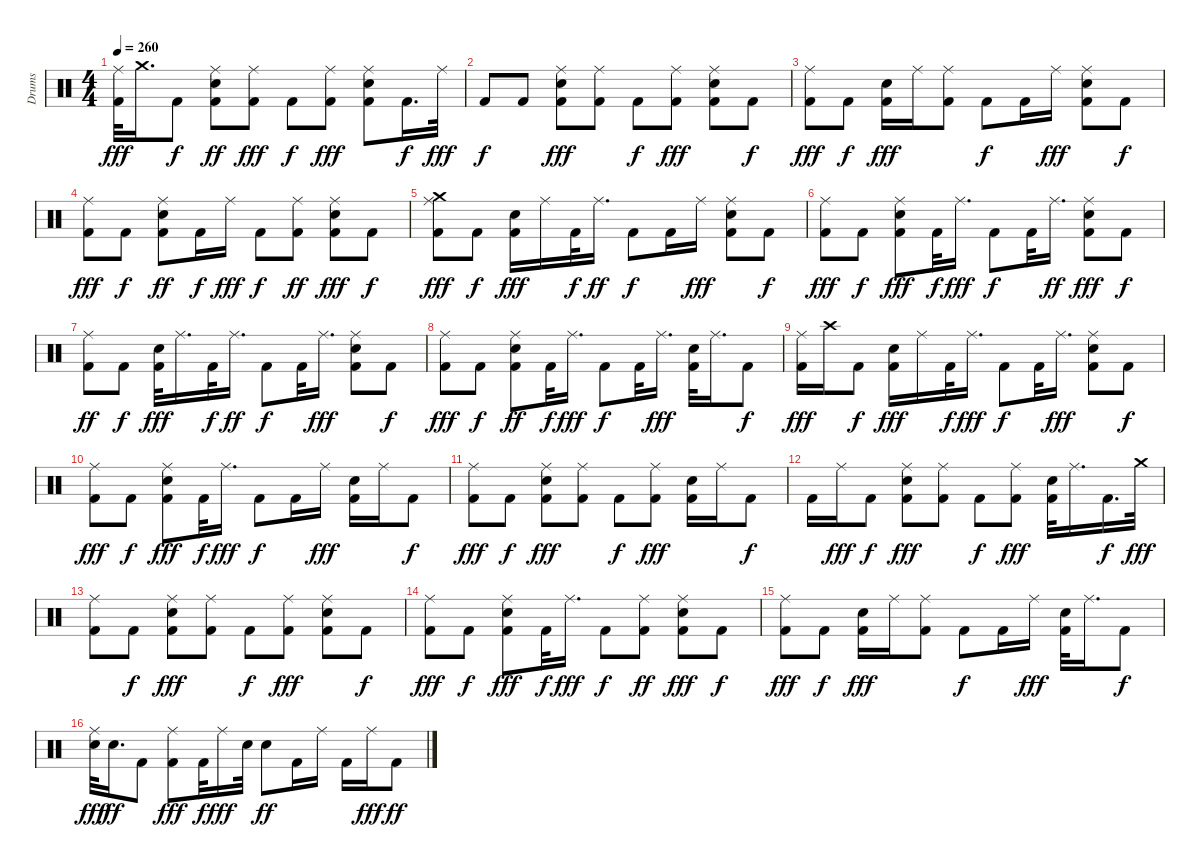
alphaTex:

\track ("Drums" "Drums") {instrument percussion}
\staff {score}
\articulation defaults
\ts (4 4)
\tempo 260
\clef neutral
\ks c
("Ride (middle)" "Kick (hit) 2").32{dy fff} "Crash medium (hit)".16{d} "Kick (hit) 2".8{dy f} ("Snare (hit) 2" "Kick (hit) 2" "Ride (middle)").8{dy ff} ("Ride (middle)" "Kick (hit) 2").8{dy fff} "Kick (hit) 2".8{dy f} ("Ride (middle)" "Kick (hit) 2").8{dy fff} ("Ride (middle)" "Snare (hit) 2" "Kick (hit) 2").8 "Kick (hit) 2".16{d dy f} "Ride (middle)".32{dy fff} |
"Kick (hit) 2".8{dy f} "Kick (hit) 2".8 ("Ride (middle)" "Snare (hit) 2" "Kick (hit) 2").8{dy fff} ("Ride (middle)" "Kick (hit) 2").8 "Kick (hit) 2".8{dy f} ("Kick (hit) 2" "Ride (middle)").8{dy fff} ("Snare (hit) 2" "Kick (hit) 2" "Ride (middle)").8 "Kick (hit) 2".8{dy f} |
("Kick (hit) 2" "Ride (middle)").8{dy fff} "Kick (hit) 2".8{dy f} ("Snare (hit) 2" "Kick (hit) 2").16{dy fff} "Ride (middle)".16 ("Kick (hit) 2" "Ride (middle)").8 "Kick (hit) 2".8{dy f} "Kick (hit) 2".16 "Ride (middle)".16{dy fff} ("Ride (middle)" "Snare (hit) 2" "Kick (hit) 2").8 "Kick (hit) 2".8{dy f} |
("Kick (hit) 2" "Ride (middle)").8{dy fff} "Kick (hit) 2".8{dy f} ("Snare (hit) 2" "Kick (hit) 2" "Ride (middle)").8{dy ff} "Kick (hit) 2".16{dy f} "Ride (middle)".16{dy fff} "Kick (hit) 2".8{dy f} ("Kick (hit) 2" "Ride (middle)").8{dy ff} ("Snare (hit) 2" "Kick (hit) 2" "Ride (middle)").8{dy fff} "Kick (hit) 2".8{dy f} |
("Kick (hit) 2" "Crash medium (hit)" "Ride (middle)").8{dy fff} "Kick (hit) 2".8{dy f} ("Snare (hit) 2" "Kick (hit) 2").16{dy fff} "Ride (middle)".16 "Kick (hit) 2".32{dy f} "Ride (middle)".16{d dy ff} "Kick (hit) 2".8{dy f} "Kick (hit) 2".16 "Ride (middle)".16{dy fff} ("Snare (hit) 2" "Kick (hit) 2" "Ride (middle)").8 "Kick (hit) 2".8{dy f} |
("Kick (hit) 2" "Ride (middle)").8{dy fff} "Kick (hit) 2".8{dy f} ("Snare (hit) 2" "Kick (hit) 2" "Ride (middle)").8{dy fff} "Kick (hit) 2".32{dy f} "Ride (middle)".16{d dy fff} "Kick (hit) 2".8{dy f} "Kick (hit) 2".32 "Ride (middle)".16{d dy ff} ("Snare (hit) 2" "Kick (hit) 2" "Ride (middle)").8{dy fff} "Kick (hit) 2".8{dy f} |
("Kick (hit) 2" "Ride (middle)").8{dy ff} "Kick (hit) 2".8{dy f} ("Snare (hit) 2" "Kick (hit) 2").32{dy fff} "Ride (middle)".16{d} "Kick (hit) 2".32{dy f} "Ride (middle)".16{d dy ff} "Kick (hit) 2".8{dy f} "Kick (hit) 2".32 "Ride (middle)".16{d dy fff} ("Snare (hit) 2" "Kick (hit) 2" "Ride (middle)").8 "Kick (hit) 2".8{dy f} |
("Kick (hit) 2" "Ride (middle)").8{dy fff} "Kick (hit) 2".8{dy f} ("Snare (hit) 2" "Kick (hit) 2" "Ride (middle)").8{dy ff} "Kick (hit) 2".32{dy f} "Ride (middle)".16{d dy fff} "Kick (hit) 2".8{dy f} "Kick (hit) 2".32 "Ride (middle)".16{d dy fff} ("Snare (hit) 2" "Kick (hit) 2").32 "Ride (middle)".16{d} "Kick (hit) 2".8{dy f} |
("Kick (hit) 2" "Ride (middle)").16{dy fff} "Crash high (hit)".16 "Kick (hit) 2".8{dy f} ("Snare (hit) 2" "Kick (hit) 2").16{dy fff} "Ride (middle)".16 "Kick (hit) 2".32{dy f} "Ride (middle)".16{d dy fff} "Kick (hit) 2".8{dy f} "Kick (hit) 2".32 "Ride (middle)".16{d dy fff} ("Snare (hit) 2" "Kick (hit) 2" "Ride (middle)").8 "Kick (hit) 2".8{dy f} |
("Kick (hit) 2" "Ride (middle)").8{dy fff} "Kick (hit) 2".8{dy f} ("Snare (hit) 2" "Kick (hit) 2" "Ride (middle)").8{dy fff} "Kick (hit) 2".32{dy f} "Ride (middle)".16{d dy fff} "Kick (hit) 2".8{dy f} "Kick (hit) 2".16 "Ride (middle)".16{dy fff} ("Snare (hit) 2" "Kick (hit) 2").16 "Ride (middle)".16 "Kick (hit) 2".8{dy f} |
("Kick (hit) 2" "Ride (middle)").8{dy fff} "Kick (hit) 2".8{dy f} ("Ride (middle)" "Snare (hit) 2" "Kick (hit) 2").8{dy fff} ("Kick (hit) 2" "Ride (middle)").8 "Kick (hit) 2".8{dy f} ("Kick (hit) 2" "Ride (middle)").8{dy fff} ("Snare (hit) 2" "Kick (hit) 2").16 "Ride (middle)".16 "Kick (hit) 2".8{dy f} |
"Kick (hit) 2".16 "Ride (middle)".16{dy fff} "Kick (hit) 2".8{dy f} ("Snare (hit) 2" "Kick (hit) 2" "Ride (middle)").8{dy fff} ("Kick (hit) 2" "Ride (middle)").8 "Kick (hit) 2".8{dy f} ("Kick (hit) 2" "Ride (middle)").8{dy fff} ("Snare (hit) 2" "Kick (hit) 2").32 "Ride (middle)".16{d} "Kick (hit) 2".16{d dy f} "Crash medium (hit)".32{dy fff} |
("Ride (middle)" "Kick (hit) 2").8 "Kick (hit) 2".8{dy f} ("Ride (middle)" "Snare (hit) 2" "Kick (hit) 2").8{dy fff} ("Kick (hit) 2" "Ride (middle)").8 "Kick (hit) 2".8{dy f} ("Kick (hit) 2" "Ride (middle)").8{dy fff} ("Snare (hit) 2" "Kick (hit) 2" "Ride (middle)").8 "Kick (hit) 2".8{dy f} |
("Kick (hit) 2" "Ride (middle)").8{dy fff} "Kick (hit) 2".8{dy f} ("Snare (hit) 2" "Kick (hit) 2" "Ride (middle)").8{dy fff} "Kick (hit) 2".32{dy f} "Ride (middle)".16{d dy fff} "Kick (hit) 2".8{dy f} ("Kick (hit) 2" "Ride (middle)").8{dy ff} ("Snare (hit) 2" "Kick (hit) 2" "Ride (middle)").8{dy fff} "Kick (hit) 2".8{dy f} |
("Ride (middle)" "Kick (hit) 2").8{dy fff} "Kick (hit) 2".8{dy f} ("Snare (hit) 2" "Kick (hit) 2").16{dy fff} "Ride (middle)".16 ("Kick (hit) 2" "Ride (middle)").8 "Kick (hit) 2".8{dy f} "Kick (hit) 2".16 "Ride (middle)".16{dy fff} ("Snare (hit) 2" "Kick (hit) 2").32 "Ride (middle)".16{d} "Kick (hit) 2".8{dy f} |
("Electric Snare (hit)" "Ride (middle)").32{dy fff} "Snare (hit) 2".16{d dy ff} "Kick (hit) 2".8 ("Kick (hit) 2" "Ride (middle)").8{dy fff} "Kick (hit) 2".32{dy f} "Ride (middle)".16{dy fff} "Electric Snare (hit)".32 "Snare (hit) 2".8{dy ff} "Kick (hit) 2".16 "Ride (middle)".16 "Kick (hit) 2".16 "Ride (middle)".16{dy fff} "Kick (hit) 2".8{dy ff}
